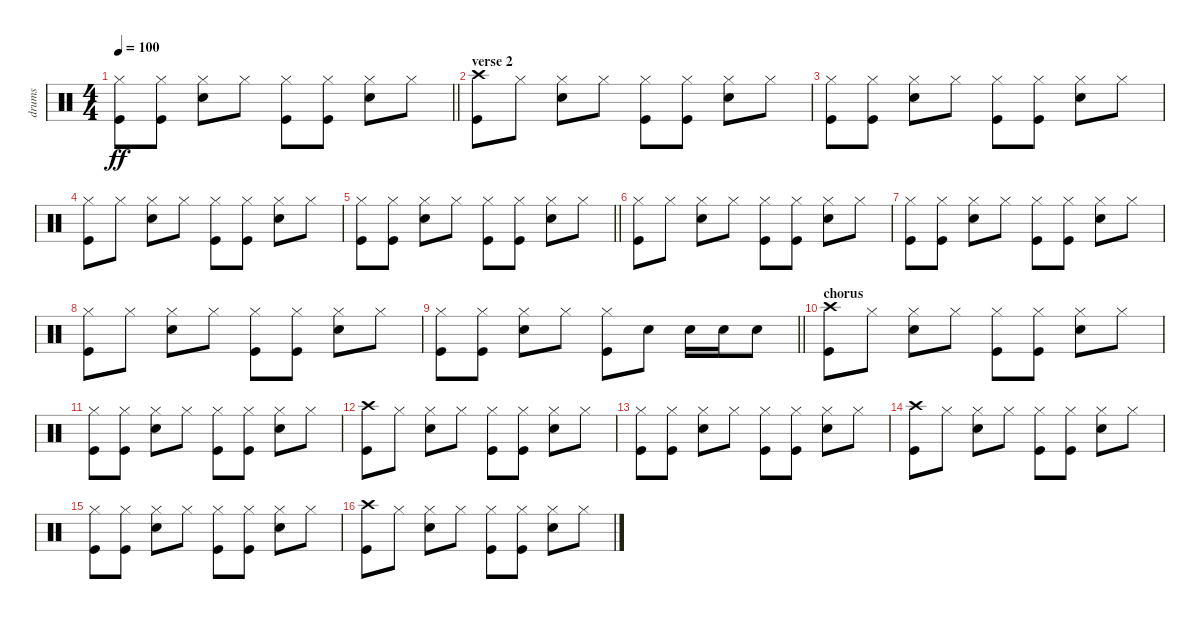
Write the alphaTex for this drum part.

\track ("drums" "drums") {instrument percussion}
\staff {score}
\articulation defaults
\ts (4 4)
\tempo 100
\clef neutral
\barLineRight lightlight
\ks c
("Hi-Hat (closed)" "Kick (hit)").8{dy ff} ("Hi-Hat (closed)" "Kick (hit)").8 ("Hi-Hat (closed)" "Electric Snare (hit)").8 "Hi-Hat (closed)".8 ("Hi-Hat (closed)" "Kick (hit)").8 ("Hi-Hat (closed)" "Kick (hit)").8 ("Hi-Hat (closed)" "Electric Snare (hit)").8 "Hi-Hat (closed)".8 |
\section ("" "verse 2")
("Crash high (hit)" "Kick (hit)").8 "Hi-Hat (closed)".8 ("Hi-Hat (closed)" "Electric Snare (hit)").8 "Hi-Hat (closed)".8 ("Hi-Hat (closed)" "Kick (hit)").8 ("Hi-Hat (closed)" "Kick (hit)").8 ("Hi-Hat (closed)" "Electric Snare (hit)").8 "Hi-Hat (closed)".8 |
("Hi-Hat (closed)" "Kick (hit)").8 ("Hi-Hat (closed)" "Kick (hit)").8 ("Hi-Hat (closed)" "Electric Snare (hit)").8 "Hi-Hat (closed)".8 ("Hi-Hat (closed)" "Kick (hit)").8 ("Hi-Hat (closed)" "Kick (hit)").8 ("Hi-Hat (closed)" "Electric Snare (hit)").8 "Hi-Hat (closed)".8 |
("Hi-Hat (closed)" "Kick (hit)").8 "Hi-Hat (closed)".8 ("Hi-Hat (closed)" "Electric Snare (hit)").8 "Hi-Hat (closed)".8 ("Hi-Hat (closed)" "Kick (hit)").8 ("Hi-Hat (closed)" "Kick (hit)").8 ("Hi-Hat (closed)" "Electric Snare (hit)").8 "Hi-Hat (closed)".8 |
\barLineRight lightlight
("Hi-Hat (closed)" "Kick (hit)").8 ("Hi-Hat (closed)" "Kick (hit)").8 ("Hi-Hat (closed)" "Electric Snare (hit)").8 "Hi-Hat (closed)".8 ("Hi-Hat (closed)" "Kick (hit)").8 ("Hi-Hat (closed)" "Kick (hit)").8 ("Hi-Hat (closed)" "Electric Snare (hit)").8 "Hi-Hat (closed)".8 |
("Hi-Hat (closed)" "Kick (hit)").8 "Hi-Hat (closed)".8 ("Hi-Hat (closed)" "Electric Snare (hit)").8 "Hi-Hat (closed)".8 ("Hi-Hat (closed)" "Kick (hit)").8 ("Hi-Hat (closed)" "Kick (hit)").8 ("Hi-Hat (closed)" "Electric Snare (hit)").8 "Hi-Hat (closed)".8 |
("Hi-Hat (closed)" "Kick (hit)").8 ("Hi-Hat (closed)" "Kick (hit)").8 ("Hi-Hat (closed)" "Electric Snare (hit)").8 "Hi-Hat (closed)".8 ("Hi-Hat (closed)" "Kick (hit)").8 ("Hi-Hat (closed)" "Kick (hit)").8 ("Hi-Hat (closed)" "Electric Snare (hit)").8 "Hi-Hat (closed)".8 |
("Hi-Hat (closed)" "Kick (hit)").8 "Hi-Hat (closed)".8 ("Hi-Hat (closed)" "Electric Snare (hit)").8 "Hi-Hat (closed)".8 ("Hi-Hat (closed)" "Kick (hit)").8 ("Hi-Hat (closed)" "Kick (hit)").8 ("Hi-Hat (closed)" "Electric Snare (hit)").8 "Hi-Hat (closed)".8 |
\barLineRight lightlight
("Hi-Hat (closed)" "Kick (hit)").8 ("Hi-Hat (closed)" "Kick (hit)").8 ("Hi-Hat (closed)" "Electric Snare (hit)").8 "Hi-Hat (closed)".8 ("Hi-Hat (closed)" "Kick (hit)").8 "Electric Snare (hit)".8 "Electric Snare (hit)".16 "Electric Snare (hit)".16 "Electric Snare (hit)".8 |
\section ("" "chorus")
("Crash high (hit)" "Kick (hit)").8 "Hi-Hat (closed)".8 ("Hi-Hat (closed)" "Electric Snare (hit)").8 "Hi-Hat (closed)".8 ("Hi-Hat (closed)" "Kick (hit)").8 ("Hi-Hat (closed)" "Kick (hit)").8 ("Hi-Hat (closed)" "Electric Snare (hit)").8 "Hi-Hat (closed)".8 |
("Hi-Hat (closed)" "Kick (hit)").8 ("Hi-Hat (closed)" "Kick (hit)").8 ("Hi-Hat (closed)" "Electric Snare (hit)").8 "Hi-Hat (closed)".8 ("Hi-Hat (closed)" "Kick (hit)").8 ("Hi-Hat (closed)" "Kick (hit)").8 ("Hi-Hat (closed)" "Electric Snare (hit)").8 "Hi-Hat (closed)".8 |
("Crash high (hit)" "Kick (hit)").8 "Hi-Hat (closed)".8 ("Hi-Hat (closed)" "Electric Snare (hit)").8 "Hi-Hat (closed)".8 ("Hi-Hat (closed)" "Kick (hit)").8 ("Hi-Hat (closed)" "Kick (hit)").8 ("Hi-Hat (closed)" "Electric Snare (hit)").8 "Hi-Hat (closed)".8 |
("Hi-Hat (closed)" "Kick (hit)").8 ("Hi-Hat (closed)" "Kick (hit)").8 ("Hi-Hat (closed)" "Electric Snare (hit)").8 "Hi-Hat (closed)".8 ("Hi-Hat (closed)" "Kick (hit)").8 ("Hi-Hat (closed)" "Kick (hit)").8 ("Hi-Hat (closed)" "Electric Snare (hit)").8 "Hi-Hat (closed)".8 |
("Crash high (hit)" "Kick (hit)").8 "Hi-Hat (closed)".8 ("Hi-Hat (closed)" "Electric Snare (hit)").8 "Hi-Hat (closed)".8 ("Hi-Hat (closed)" "Kick (hit)").8 ("Hi-Hat (closed)" "Kick (hit)").8 ("Hi-Hat (closed)" "Electric Snare (hit)").8 "Hi-Hat (closed)".8 |
("Hi-Hat (closed)" "Kick (hit)").8 ("Hi-Hat (closed)" "Kick (hit)").8 ("Hi-Hat (closed)" "Electric Snare (hit)").8 "Hi-Hat (closed)".8 ("Hi-Hat (closed)" "Kick (hit)").8 ("Hi-Hat (closed)" "Kick (hit)").8 ("Hi-Hat (closed)" "Electric Snare (hit)").8 "Hi-Hat (closed)".8 |
("Crash high (hit)" "Kick (hit)").8 "Hi-Hat (closed)".8 ("Hi-Hat (closed)" "Electric Snare (hit)").8 "Hi-Hat (closed)".8 ("Hi-Hat (closed)" "Kick (hit)").8 ("Hi-Hat (closed)" "Kick (hit)").8 ("Hi-Hat (closed)" "Electric Snare (hit)").8 "Hi-Hat (closed)".8
